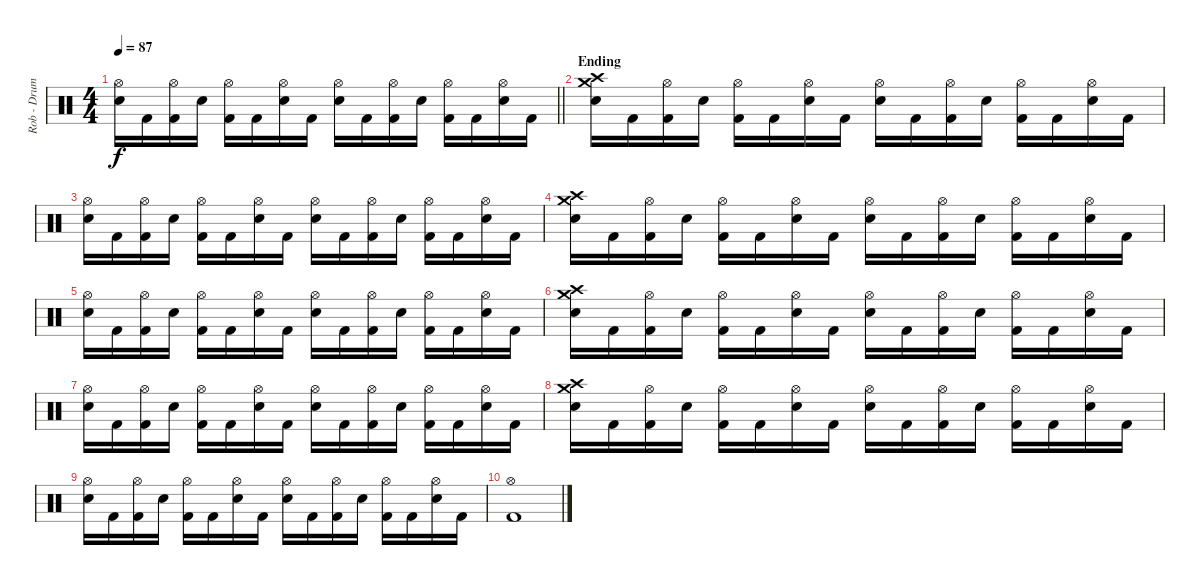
\track ("Rob - Drums" "Rob - Drum") {instrument percussion}
\staff {score}
\articulation defaults
\ts (4 4)
\tempo 87
\clef neutral
\barLineRight lightlight
\ks c
("Hi-Hat (open)" "Electric Snare (hit)").16{dy f} "Kick (hit) 2".16 ("Hi-Hat (open)" "Kick (hit) 2").16 "Electric Snare (hit)".16 ("Hi-Hat (open)" "Kick (hit) 2").16 "Kick (hit) 2".16 ("Hi-Hat (open)" "Electric Snare (hit)").16 "Kick (hit) 2".16 ("Hi-Hat (open)" "Electric Snare (hit)").16 "Kick (hit) 2".16 ("Hi-Hat (open)" "Kick (hit) 2").16 "Electric Snare (hit)".16 ("Hi-Hat (open)" "Kick (hit) 2").16 "Kick (hit) 2".16 ("Hi-Hat (open)" "Electric Snare (hit)").16 "Kick (hit) 2".16 |
\section ("" "Ending")
("Crash medium (hit)" "Crash high (hit)" "Electric Snare (hit)").16 "Kick (hit) 2".16 ("Hi-Hat (open)" "Kick (hit) 2").16 "Electric Snare (hit)".16 ("Hi-Hat (open)" "Kick (hit) 2").16 "Kick (hit) 2".16 ("Hi-Hat (open)" "Electric Snare (hit)").16 "Kick (hit) 2".16 ("Hi-Hat (open)" "Electric Snare (hit)").16 "Kick (hit) 2".16 ("Hi-Hat (open)" "Kick (hit) 2").16 "Electric Snare (hit)".16 ("Hi-Hat (open)" "Kick (hit) 2").16 "Kick (hit) 2".16 ("Hi-Hat (open)" "Electric Snare (hit)").16 "Kick (hit) 2".16 |
("Hi-Hat (open)" "Electric Snare (hit)").16 "Kick (hit) 2".16 ("Hi-Hat (open)" "Kick (hit) 2").16 "Electric Snare (hit)".16 ("Hi-Hat (open)" "Kick (hit) 2").16 "Kick (hit) 2".16 ("Hi-Hat (open)" "Electric Snare (hit)").16 "Kick (hit) 2".16 ("Hi-Hat (open)" "Electric Snare (hit)").16 "Kick (hit) 2".16 ("Hi-Hat (open)" "Kick (hit) 2").16 "Electric Snare (hit)".16 ("Hi-Hat (open)" "Kick (hit) 2").16 "Kick (hit) 2".16 ("Hi-Hat (open)" "Electric Snare (hit)").16 "Kick (hit) 2".16 |
("Crash medium (hit)" "Crash high (hit)" "Electric Snare (hit)").16 "Kick (hit) 2".16 ("Hi-Hat (open)" "Kick (hit) 2").16 "Electric Snare (hit)".16 ("Hi-Hat (open)" "Kick (hit) 2").16 "Kick (hit) 2".16 ("Hi-Hat (open)" "Electric Snare (hit)").16 "Kick (hit) 2".16 ("Hi-Hat (open)" "Electric Snare (hit)").16 "Kick (hit) 2".16 ("Hi-Hat (open)" "Kick (hit) 2").16 "Electric Snare (hit)".16 ("Hi-Hat (open)" "Kick (hit) 2").16 "Kick (hit) 2".16 ("Hi-Hat (open)" "Electric Snare (hit)").16 "Kick (hit) 2".16 |
("Hi-Hat (open)" "Electric Snare (hit)").16 "Kick (hit) 2".16 ("Hi-Hat (open)" "Kick (hit) 2").16 "Electric Snare (hit)".16 ("Hi-Hat (open)" "Kick (hit) 2").16 "Kick (hit) 2".16 ("Hi-Hat (open)" "Electric Snare (hit)").16 "Kick (hit) 2".16 ("Hi-Hat (open)" "Electric Snare (hit)").16 "Kick (hit) 2".16 ("Hi-Hat (open)" "Kick (hit) 2").16 "Electric Snare (hit)".16 ("Hi-Hat (open)" "Kick (hit) 2").16 "Kick (hit) 2".16 ("Hi-Hat (open)" "Electric Snare (hit)").16 "Kick (hit) 2".16 |
("Crash medium (hit)" "Crash high (hit)" "Electric Snare (hit)").16 "Kick (hit) 2".16 ("Hi-Hat (open)" "Kick (hit) 2").16 "Electric Snare (hit)".16 ("Hi-Hat (open)" "Kick (hit) 2").16 "Kick (hit) 2".16 ("Hi-Hat (open)" "Electric Snare (hit)").16 "Kick (hit) 2".16 ("Hi-Hat (open)" "Electric Snare (hit)").16 "Kick (hit) 2".16 ("Hi-Hat (open)" "Kick (hit) 2").16 "Electric Snare (hit)".16 ("Hi-Hat (open)" "Kick (hit) 2").16 "Kick (hit) 2".16 ("Hi-Hat (open)" "Electric Snare (hit)").16 "Kick (hit) 2".16 |
("Hi-Hat (open)" "Electric Snare (hit)").16 "Kick (hit) 2".16 ("Hi-Hat (open)" "Kick (hit) 2").16 "Electric Snare (hit)".16 ("Hi-Hat (open)" "Kick (hit) 2").16 "Kick (hit) 2".16 ("Hi-Hat (open)" "Electric Snare (hit)").16 "Kick (hit) 2".16 ("Hi-Hat (open)" "Electric Snare (hit)").16 "Kick (hit) 2".16 ("Hi-Hat (open)" "Kick (hit) 2").16 "Electric Snare (hit)".16 ("Hi-Hat (open)" "Kick (hit) 2").16 "Kick (hit) 2".16 ("Hi-Hat (open)" "Electric Snare (hit)").16 "Kick (hit) 2".16 |
("Crash medium (hit)" "Crash high (hit)" "Electric Snare (hit)").16 "Kick (hit) 2".16 ("Hi-Hat (open)" "Kick (hit) 2").16 "Electric Snare (hit)".16 ("Hi-Hat (open)" "Kick (hit) 2").16 "Kick (hit) 2".16 ("Hi-Hat (open)" "Electric Snare (hit)").16 "Kick (hit) 2".16 ("Hi-Hat (open)" "Electric Snare (hit)").16 "Kick (hit) 2".16 ("Hi-Hat (open)" "Kick (hit) 2").16 "Electric Snare (hit)".16 ("Hi-Hat (open)" "Kick (hit) 2").16 "Kick (hit) 2".16 ("Hi-Hat (open)" "Electric Snare (hit)").16 "Kick (hit) 2".16 |
("Hi-Hat (open)" "Electric Snare (hit)").16 "Kick (hit) 2".16 ("Hi-Hat (open)" "Kick (hit) 2").16 "Electric Snare (hit)".16 ("Hi-Hat (open)" "Kick (hit) 2").16 "Kick (hit) 2".16 ("Hi-Hat (open)" "Electric Snare (hit)").16 "Kick (hit) 2".16 ("Hi-Hat (open)" "Electric Snare (hit)").16 "Kick (hit) 2".16 ("Hi-Hat (open)" "Kick (hit) 2").16 "Electric Snare (hit)".16 ("Hi-Hat (open)" "Kick (hit) 2").16 "Kick (hit) 2".16 ("Hi-Hat (open)" "Electric Snare (hit)").16 "Kick (hit) 2".16 |
("Hi-Hat (open)" "Kick (hit) 2").1
